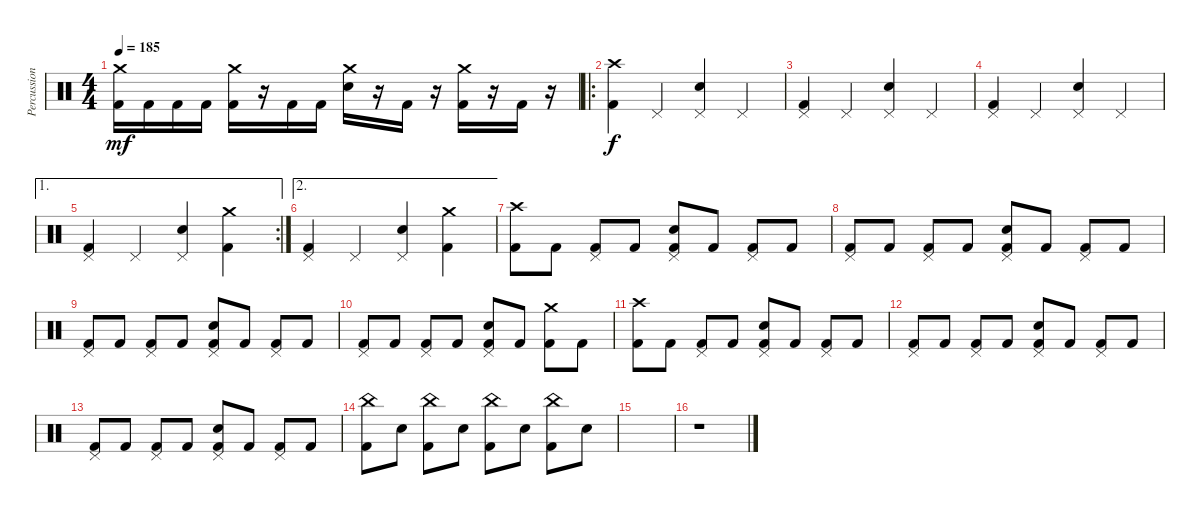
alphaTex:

\track ("Percussions" "Percussion") {instrument percussion}
\staff {score}
\articulation defaults
\ts (4 4)
\tempo 185
\clef neutral
\ks c
("Kick (hit) 2" "Crash medium (hit)").16{dy mf} "Kick (hit) 2".16 "Kick (hit) 2".16 "Kick (hit) 2".16 ("Kick (hit) 2" "Crash medium (hit)").16 r.16 "Kick (hit) 2".16 "Kick (hit) 2".16 ("Electric Snare (hit)" "Crash medium (hit)").16 r.16 "Kick (hit) 2".16 r.16 ("Kick (hit) 2" "Crash medium (hit)").16 r.16 "Kick (hit) 2".16 r.16 |
\ro
("Kick (hit) 2" "Crash high (hit)").4{dy f} "Pedal Hi-Hat (hit)".4 ("Electric Snare (hit)" "Pedal Hi-Hat (hit)").4 "Pedal Hi-Hat (hit)".4 |
("Kick (hit) 2" "Pedal Hi-Hat (hit)").4 "Pedal Hi-Hat (hit)".4 ("Electric Snare (hit)" "Pedal Hi-Hat (hit)").4 "Pedal Hi-Hat (hit)".4 |
("Kick (hit) 2" "Pedal Hi-Hat (hit)").4 "Pedal Hi-Hat (hit)".4 ("Electric Snare (hit)" "Pedal Hi-Hat (hit)").4 "Pedal Hi-Hat (hit)".4 |
\ae 1
\rc 2
("Kick (hit) 2" "Pedal Hi-Hat (hit)").4 "Pedal Hi-Hat (hit)".4 ("Electric Snare (hit)" "Pedal Hi-Hat (hit)").4 ("Kick (hit) 2" "Crash medium (hit)").4 |
\ae 2
("Kick (hit) 2" "Pedal Hi-Hat (hit)").4 "Pedal Hi-Hat (hit)".4 ("Electric Snare (hit)" "Pedal Hi-Hat (hit)").4 ("Kick (hit) 2" "Crash medium (hit)").4 |
("Kick (hit) 2" "Crash high (hit)").8 "Kick (hit) 2".8 ("Kick (hit) 2" "Pedal Hi-Hat (hit)").8 "Kick (hit) 2".8 ("Kick (hit) 2" "Electric Snare (hit)" "Pedal Hi-Hat (hit)").8 "Kick (hit) 2".8 ("Kick (hit) 2" "Pedal Hi-Hat (hit)").8 "Kick (hit) 2".8 |
("Kick (hit) 2" "Pedal Hi-Hat (hit)").8 "Kick (hit) 2".8 ("Kick (hit) 2" "Pedal Hi-Hat (hit)").8 "Kick (hit) 2".8 ("Kick (hit) 2" "Electric Snare (hit)" "Pedal Hi-Hat (hit)").8 "Kick (hit) 2".8 ("Kick (hit) 2" "Pedal Hi-Hat (hit)").8 "Kick (hit) 2".8 |
("Kick (hit) 2" "Pedal Hi-Hat (hit)").8 "Kick (hit) 2".8 ("Kick (hit) 2" "Pedal Hi-Hat (hit)").8 "Kick (hit) 2".8 ("Kick (hit) 2" "Electric Snare (hit)" "Pedal Hi-Hat (hit)").8 "Kick (hit) 2".8 ("Kick (hit) 2" "Pedal Hi-Hat (hit)").8 "Kick (hit) 2".8 |
("Kick (hit) 2" "Pedal Hi-Hat (hit)").8 "Kick (hit) 2".8 ("Kick (hit) 2" "Pedal Hi-Hat (hit)").8 "Kick (hit) 2".8 ("Kick (hit) 2" "Electric Snare (hit)" "Pedal Hi-Hat (hit)").8 "Kick (hit) 2".8 ("Kick (hit) 2" "Crash medium (hit)").8 "Kick (hit) 2".8 |
("Kick (hit) 2" "Crash high (hit)").8 "Kick (hit) 2".8 ("Kick (hit) 2" "Pedal Hi-Hat (hit)").8 "Kick (hit) 2".8 ("Kick (hit) 2" "Electric Snare (hit)" "Pedal Hi-Hat (hit)").8 "Kick (hit) 2".8 ("Kick (hit) 2" "Pedal Hi-Hat (hit)").8 "Kick (hit) 2".8 |
("Kick (hit) 2" "Pedal Hi-Hat (hit)").8 "Kick (hit) 2".8 ("Kick (hit) 2" "Pedal Hi-Hat (hit)").8 "Kick (hit) 2".8 ("Kick (hit) 2" "Electric Snare (hit)" "Pedal Hi-Hat (hit)").8 "Kick (hit) 2".8 ("Kick (hit) 2" "Pedal Hi-Hat (hit)").8 "Kick (hit) 2".8 |
("Kick (hit) 2" "Pedal Hi-Hat (hit)").8 "Kick (hit) 2".8 ("Kick (hit) 2" "Pedal Hi-Hat (hit)").8 "Kick (hit) 2".8 ("Kick (hit) 2" "Electric Snare (hit)" "Pedal Hi-Hat (hit)").8 "Kick (hit) 2".8 ("Kick (hit) 2" "Pedal Hi-Hat (hit)").8 "Kick (hit) 2".8 |
("Kick (hit) 2" "China (hit)").8 "Electric Snare (hit)".8 ("Kick (hit) 2" "China (hit)").8 "Electric Snare (hit)".8 ("Kick (hit) 2" "China (hit)").8 "Electric Snare (hit)".8 ("Kick (hit) 2" "China (hit)").8 "Electric Snare (hit)".8 |
|
r.1
